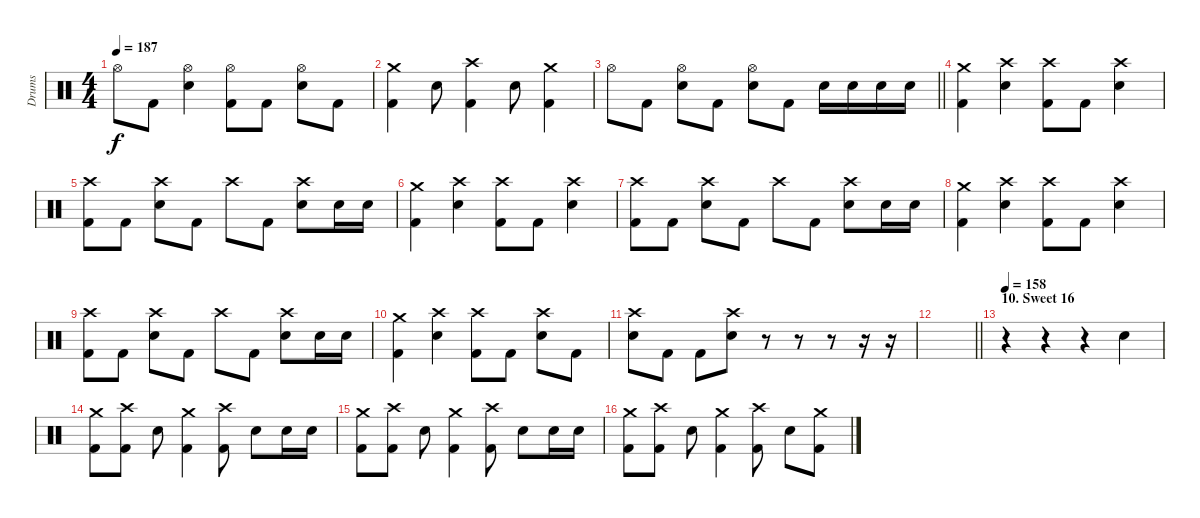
\track ("Drums" "Drums") {instrument percussion}
\staff {score}
\articulation defaults
\ts (4 4)
\tempo 187
\clef neutral
\ks c "Hi-Hat (open)".8{dy f} "Kick (hit) 2".8
("Hi-Hat (open)" "Electric Snare (hit)").4 ("Hi-Hat (open)" "Kick (hit) 2").8 "Kick (hit) 2".8 ("Hi-Hat (open)" "Electric Snare (hit)").8 "Kick (hit) 2".8 |
("Crash medium (hit)" "Kick (hit) 2").4 "Electric Snare (hit)".8 ("Crash high (hit)" "Kick (hit) 2").4 "Electric Snare (hit)".8 ("Crash medium (hit)" "Kick (hit) 2").4 |
\barLineRight lightlight "Hi-Hat (open)".8 "Kick (hit) 2".8
("Hi-Hat (open)" "Electric Snare (hit)").8 "Kick (hit) 2".8 ("Hi-Hat (open)" "Electric Snare (hit)").8 "Kick (hit) 2".8 "Electric Snare (hit)".16 "Electric Snare (hit)".16 "Electric Snare (hit)".16 "Electric Snare (hit)".16 |
("Crash medium (hit)" "Kick (hit) 2").4 ("Crash high (hit)" "Electric Snare (hit)").4 ("Crash high (hit)" "Kick (hit) 2").8 "Kick (hit) 2".8 ("Crash high (hit)" "Electric Snare (hit)").4 |
("Crash high (hit)" "Kick (hit) 2").8 "Kick (hit) 2".8 ("Crash high (hit)" "Electric Snare (hit)").8 "Kick (hit) 2".8 "Crash high (hit)".8 "Kick (hit) 2".8 ("Crash high (hit)" "Electric Snare (hit)").8 "Electric Snare (hit)".16 "Electric Snare (hit)".16 |
("Crash medium (hit)" "Kick (hit) 2").4 ("Crash high (hit)" "Electric Snare (hit)").4 ("Crash high (hit)" "Kick (hit) 2").8 "Kick (hit) 2".8 ("Crash high (hit)" "Electric Snare (hit)").4 |
("Crash high (hit)" "Kick (hit) 2").8 "Kick (hit) 2".8 ("Crash high (hit)" "Electric Snare (hit)").8 "Kick (hit) 2".8 "Crash high (hit)".8 "Kick (hit) 2".8 ("Crash high (hit)" "Electric Snare (hit)").8 "Electric Snare (hit)".16 "Electric Snare (hit)".16 |
("Crash medium (hit)" "Kick (hit) 2").4 ("Crash high (hit)" "Electric Snare (hit)").4 ("Crash high (hit)" "Kick (hit) 2").8 "Kick (hit) 2".8 ("Crash high (hit)" "Electric Snare (hit)").4 |
("Crash high (hit)" "Kick (hit) 2").8 "Kick (hit) 2".8 ("Crash high (hit)" "Electric Snare (hit)").8 "Kick (hit) 2".8 "Crash high (hit)".8 "Kick (hit) 2".8 ("Crash high (hit)" "Electric Snare (hit)").8 "Electric Snare (hit)".16 "Electric Snare (hit)".16 |
("Crash medium (hit)" "Kick (hit) 2").4 ("Crash high (hit)" "Electric Snare (hit)").4 ("Crash high (hit)" "Kick (hit) 2").8 "Kick (hit) 2".8 ("Crash high (hit)" "Electric Snare (hit)").8 "Kick (hit) 2".8 |
("Crash high (hit)" "Electric Snare (hit)").8 "Kick (hit) 2".8 "Kick (hit) 2".8 ("Crash high (hit)" "Electric Snare (hit)").8 r.8 r.8 r.8 r.16 r.16 |
\barLineRight lightlight
|
\section ("" "10. Sweet 16")
\tempo 158
r.4 r.4 r.4 "Electric Snare (hit)".4 |
("Crash medium (hit)" "Kick (hit) 2").8 ("Crash high (hit)" "Kick (hit) 2").8 "Electric Snare (hit)".8 ("Crash medium (hit)" "Kick (hit) 2").4 ("Crash high (hit)" "Kick (hit) 2").8 "Electric Snare (hit)".8 "Electric Snare (hit)".16 "Electric Snare (hit)".16 |
("Crash medium (hit)" "Kick (hit) 2").8 ("Crash high (hit)" "Kick (hit) 2").8 "Electric Snare (hit)".8 ("Crash medium (hit)" "Kick (hit) 2").4 ("Crash high (hit)" "Kick (hit) 2").8 "Electric Snare (hit)".8 "Electric Snare (hit)".16 "Electric Snare (hit)".16 |
("Crash medium (hit)" "Kick (hit) 2").8 ("Crash high (hit)" "Kick (hit) 2").8 "Electric Snare (hit)".8 ("Crash medium (hit)" "Kick (hit) 2").4 ("Crash high (hit)" "Kick (hit) 2").8 "Electric Snare (hit)".8 ("Crash medium (hit)" "Kick (hit) 2").8
